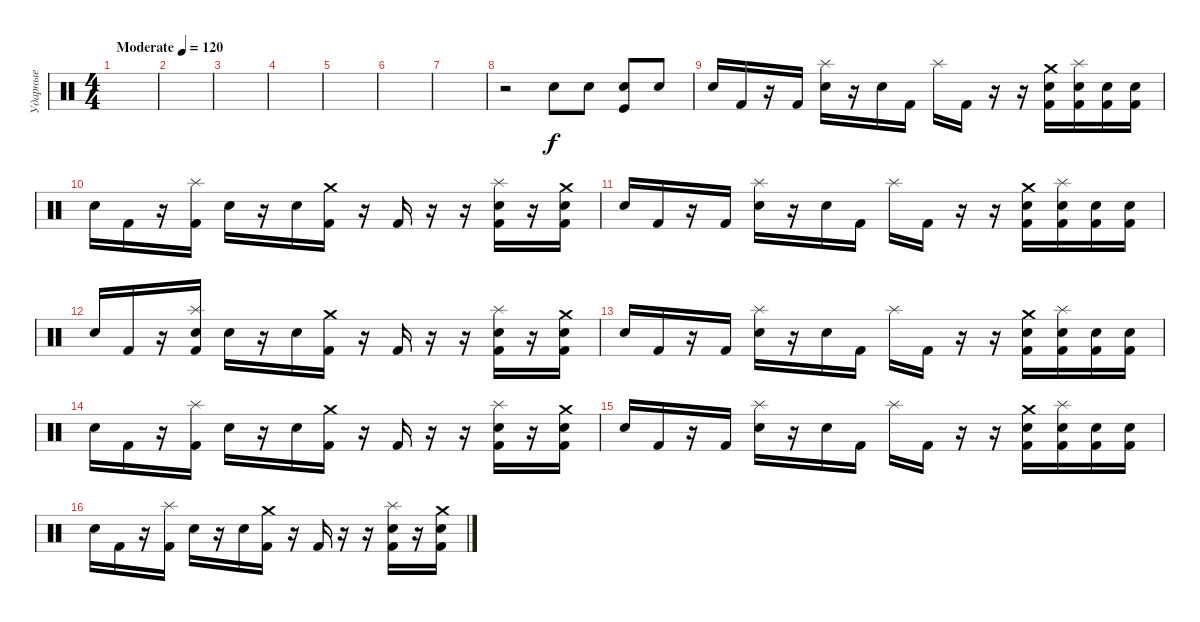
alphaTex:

\track ("Ударные" "Ударные") {instrument percussion}
\staff {score}
\articulation defaults
\ts (4 4)
\tempo (120 "Moderate")
\clef neutral
\ks c
|
|
|
|
|
|
|
r.2 "Electric Snare (hit)".8 "Electric Snare (hit)".8 ("Electric Snare (hit)" "Kick (hit)").8 "Electric Snare (hit)".8 |
"Electric Snare (hit)".16 "Kick (hit) 2".16 r.16 "Kick (hit) 2".16 ("Splash (hit)" "Electric Snare (hit)").16 r.16 "Electric Snare (hit)".16 "Kick (hit) 2".16 "Splash (hit)".16 "Kick (hit) 2".16 r.16 r.16 ("Crash medium (hit)" "Electric Snare (hit)" "Kick (hit) 2").16 ("Splash (hit)" "Electric Snare (hit)" "Kick (hit) 2").16 ("Electric Snare (hit)" "Kick (hit) 2").16 ("Electric Snare (hit)" "Kick (hit) 2").16 |
"Electric Snare (hit)".16 "Kick (hit) 2".16 r.16 ("Splash (hit)" "Kick (hit) 2").16 "Electric Snare (hit)".16 r.16 "Electric Snare (hit)".16 ("Crash medium (hit)" "Kick (hit) 2").16 r.16 "Kick (hit) 2".16 r.16 r.16 ("Splash (hit)" "Electric Snare (hit)" "Kick (hit) 2").16 r.16 ("Crash medium (hit)" "Electric Snare (hit)" "Kick (hit) 2").16 |
"Electric Snare (hit)".16 "Kick (hit) 2".16 r.16 "Kick (hit) 2".16 ("Splash (hit)" "Electric Snare (hit)").16 r.16 "Electric Snare (hit)".16 "Kick (hit) 2".16 "Splash (hit)".16 "Kick (hit) 2".16 r.16 r.16 ("Crash medium (hit)" "Electric Snare (hit)" "Kick (hit) 2").16 ("Splash (hit)" "Electric Snare (hit)" "Kick (hit) 2").16 ("Electric Snare (hit)" "Kick (hit) 2").16 ("Electric Snare (hit)" "Kick (hit) 2").16 |
"Electric Snare (hit)".16 "Kick (hit) 2".16 r.16 ("Splash (hit)" "Snare (hit)" "Kick (hit) 2").16 "Electric Snare (hit)".16 r.16 "Electric Snare (hit)".16 ("Crash medium (hit)" "Kick (hit) 2").16 r.16 "Kick (hit) 2".16 r.16 r.16 ("Splash (hit)" "Electric Snare (hit)" "Kick (hit) 2").16 r.16 ("Crash medium (hit)" "Electric Snare (hit)" "Kick (hit) 2").16 |
"Electric Snare (hit)".16 "Kick (hit) 2".16 r.16 "Kick (hit) 2".16 ("Splash (hit)" "Electric Snare (hit)").16 r.16 "Electric Snare (hit)".16 "Kick (hit) 2".16 "Splash (hit)".16 "Kick (hit) 2".16 r.16 r.16 ("Crash medium (hit)" "Electric Snare (hit)" "Kick (hit) 2").16 ("Splash (hit)" "Electric Snare (hit)" "Kick (hit) 2").16 ("Electric Snare (hit)" "Kick (hit) 2").16 ("Electric Snare (hit)" "Kick (hit) 2").16 |
"Electric Snare (hit)".16 "Kick (hit) 2".16 r.16 ("Splash (hit)" "Kick (hit) 2").16 "Electric Snare (hit)".16 r.16 "Electric Snare (hit)".16 ("Crash medium (hit)" "Kick (hit) 2").16 r.16 "Kick (hit) 2".16 r.16 r.16 ("Splash (hit)" "Electric Snare (hit)" "Kick (hit) 2").16 r.16 ("Crash medium (hit)" "Electric Snare (hit)" "Kick (hit) 2").16 |
"Electric Snare (hit)".16 "Kick (hit) 2".16 r.16 "Kick (hit) 2".16 ("Splash (hit)" "Electric Snare (hit)").16 r.16 "Electric Snare (hit)".16 "Kick (hit) 2".16 "Splash (hit)".16 "Kick (hit) 2".16 r.16 r.16 ("Crash medium (hit)" "Electric Snare (hit)" "Kick (hit) 2").16 ("Splash (hit)" "Electric Snare (hit)" "Kick (hit) 2").16 ("Electric Snare (hit)" "Kick (hit) 2").16 ("Electric Snare (hit)" "Kick (hit) 2").16 |
"Electric Snare (hit)".16 "Kick (hit) 2".16 r.16 ("Splash (hit)" "Kick (hit) 2").16 "Electric Snare (hit)".16 r.16 "Electric Snare (hit)".16 ("Crash medium (hit)" "Kick (hit) 2").16 r.16 "Kick (hit) 2".16 r.16 r.16 ("Splash (hit)" "Electric Snare (hit)" "Kick (hit) 2").16 r.16 ("Crash medium (hit)" "Electric Snare (hit)" "Kick (hit) 2").16
